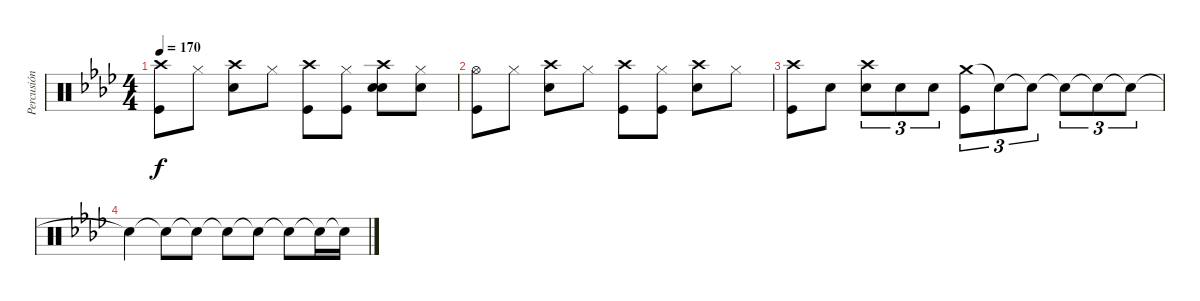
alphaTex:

\track ("Percusión" "Percusión") {instrument percussion}
\staff {score}
\articulation defaults
\ts (4 4)
\tempo 170
\clef neutral
\ks ab
("Crash high (hit)" "Kick (hit)").8{dy f} "Hi-Hat (closed)".8 ("Crash high (hit)" "Electric Snare (hit)").8 "Hi-Hat (closed)".8 ("Crash high (hit)" "Kick (hit)").8 ("Hi-Hat (closed)" "Kick (hit)").8 ("Crash high (hit)" "Hand Clap (hit)" "Electric Snare (hit)").8 ("Hi-Hat (closed)" "Hand Clap (hit)").8 |
("Hi-Hat (open)" "Kick (hit)").8 "Hi-Hat (closed)".8 ("Crash high (hit)" "Electric Snare (hit)").8 "Hi-Hat (closed)".8 ("Crash high (hit)" "Kick (hit)").8 ("Hi-Hat (closed)" "Kick (hit)").8 ("Crash high (hit)" "Electric Snare (hit)").8 "Hi-Hat (closed)".8 |
("Crash high (hit)" "Kick (hit)").8 "Electric Snare (hit)".8 ("Crash high (hit)" "Electric Snare (hit)").8{tu (3 2)} "Electric Snare (hit)".8{tu (3 2)} "Electric Snare (hit)".8{tu (3 2)} ("Crash medium (hit)" "Kick (hit)").8{tu (3 2)} "Snare (hit)"{t}.8{tu (3 2)} "Snare (hit)"{t}.8{tu (3 2)} "Snare (hit)"{t}.8{tu (3 2)} "Snare (hit)"{t}.8{tu (3 2)} "Snare (hit)"{t}.8{tu (3 2)} |
"Snare (hit)"{t}.4 "Snare (hit)"{t}.8 "Snare (hit)"{t}.8 "Snare (hit)"{t}.8 "Snare (hit)"{t}.8 "Snare (hit)"{t}.8 "Snare (hit)"{t}.16 "Snare (hit)"{t}.16
